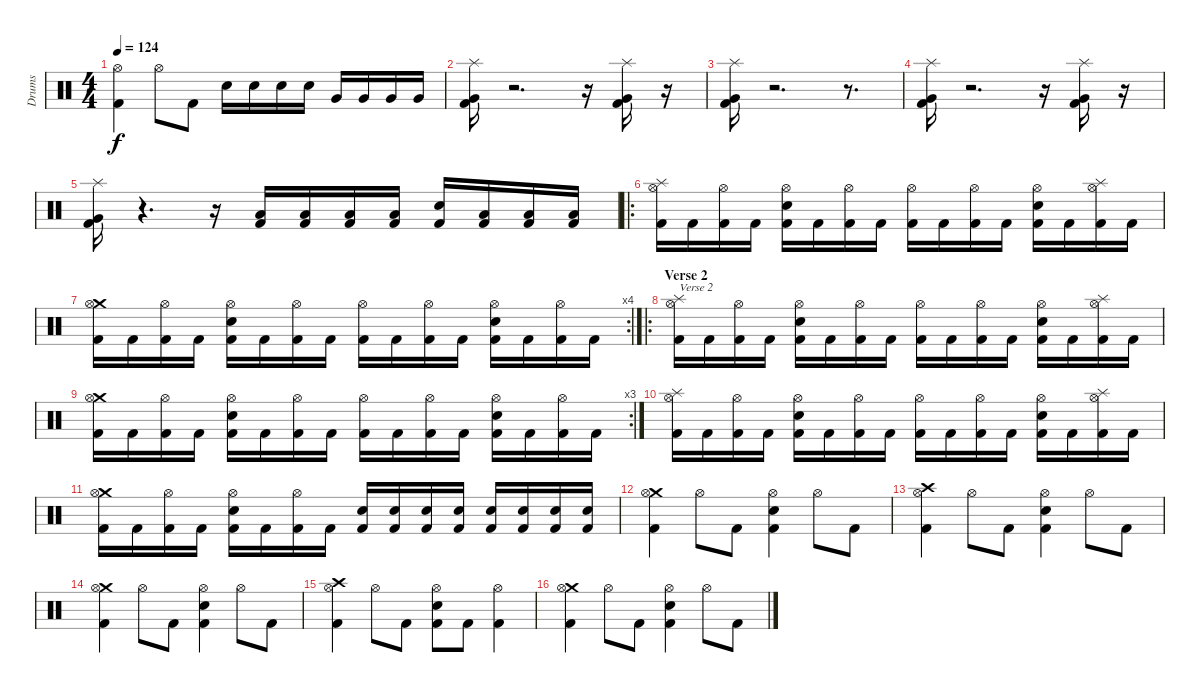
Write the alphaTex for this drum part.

\track ("Drums" "Drums") {instrument percussion}
\staff {score}
\articulation defaults
\ts (4 4)
\tempo 124
\clef neutral
\ks c
("Hi-Hat (open)" "Kick (hit) 2").4{dy f} "Hi-Hat (open)".8 "Kick (hit) 2".8 "Electric Snare (hit)".16 "Electric Snare (hit)".16 "Electric Snare (hit)".16 "Electric Snare (hit)".16 "Very Low Tom (hit)".16 "Very Low Tom (hit)".16 "Very Low Tom (hit)".16 "Very Low Tom (hit)".16 |
("Splash (hit)" "Very Low Tom (hit)" "Kick (hit) 2").16 r.2{d} r.16 ("Splash (hit)" "Very Low Tom (hit)" "Kick (hit) 2").16 r.16 |
("Splash (hit)" "Very Low Tom (hit)" "Kick (hit) 2").16 r.2{d} r.8{d} |
("Splash (hit)" "Very Low Tom (hit)" "Kick (hit) 2").16 r.2{d} r.16 ("Splash (hit)" "Very Low Tom (hit)" "Kick (hit) 2").16 r.16 |
("Splash (hit)" "Very Low Tom (hit)" "Kick (hit) 2").16 r.4{d} r.16 ("Low Floor Tom (hit)" "Kick (hit) 2").16 ("Low Floor Tom (hit)" "Kick (hit) 2").16 ("Low Floor Tom (hit)" "Kick (hit) 2").16 ("Low Floor Tom (hit)" "Kick (hit) 2").16 ("Electric Snare (hit)" "Kick (hit) 2").16 ("Low Floor Tom (hit)" "Kick (hit) 2").16 ("Low Floor Tom (hit)" "Kick (hit) 2").16 ("Low Floor Tom (hit)" "Kick (hit) 2").16 |
\ro
("Splash (hit)" "Hi-Hat (open)" "Kick (hit) 2").16 "Kick (hit) 2".16 ("Hi-Hat (open)" "Kick (hit) 2").16 "Kick (hit) 2".16 ("Hi-Hat (open)" "Electric Snare (hit)" "Kick (hit) 2").16 "Kick (hit) 2".16 ("Hi-Hat (open)" "Kick (hit) 2").16 "Kick (hit) 2".16 ("Hi-Hat (open)" "Kick (hit) 2").16 "Kick (hit) 2".16 ("Hi-Hat (open)" "Kick (hit) 2").16 "Kick (hit) 2".16 ("Hi-Hat (open)" "Electric Snare (hit)" "Kick (hit) 2").16 "Kick (hit) 2".16 ("Splash (hit)" "Hi-Hat (open)" "Kick (hit) 2").16 "Kick (hit) 2".16 |
\rc 4
("Crash medium (hit)" "Hi-Hat (open)" "Kick (hit) 2").16 "Kick (hit) 2".16 ("Hi-Hat (open)" "Kick (hit) 2").16 "Kick (hit) 2".16 ("Hi-Hat (open)" "Electric Snare (hit)" "Kick (hit) 2").16 "Kick (hit) 2".16 ("Hi-Hat (open)" "Kick (hit) 2").16 "Kick (hit) 2".16 ("Hi-Hat (open)" "Kick (hit) 2").16 "Kick (hit) 2".16 ("Hi-Hat (open)" "Kick (hit) 2").16 "Kick (hit) 2".16 ("Hi-Hat (open)" "Electric Snare (hit)" "Kick (hit) 2").16 "Kick (hit) 2".16 ("Hi-Hat (open)" "Kick (hit) 2").16 "Kick (hit) 2".16 |
\ro
\section ("" "Verse 2")
("Splash (hit)" "Hi-Hat (open)" "Kick (hit) 2").16{txt "Verse 2"} "Kick (hit) 2".16 ("Hi-Hat (open)" "Kick (hit) 2").16 "Kick (hit) 2".16 ("Hi-Hat (open)" "Electric Snare (hit)" "Kick (hit) 2").16 "Kick (hit) 2".16 ("Hi-Hat (open)" "Kick (hit) 2").16 "Kick (hit) 2".16 ("Hi-Hat (open)" "Kick (hit) 2").16 "Kick (hit) 2".16 ("Hi-Hat (open)" "Kick (hit) 2").16 "Kick (hit) 2".16 ("Hi-Hat (open)" "Electric Snare (hit)" "Kick (hit) 2").16 "Kick (hit) 2".16 ("Splash (hit)" "Hi-Hat (open)" "Kick (hit) 2").16 "Kick (hit) 2".16 |
\rc 3
("Crash medium (hit)" "Hi-Hat (open)" "Kick (hit) 2").16 "Kick (hit) 2".16 ("Hi-Hat (open)" "Kick (hit) 2").16 "Kick (hit) 2".16 ("Hi-Hat (open)" "Electric Snare (hit)" "Kick (hit) 2").16 "Kick (hit) 2".16 ("Hi-Hat (open)" "Kick (hit) 2").16 "Kick (hit) 2".16 ("Hi-Hat (open)" "Kick (hit) 2").16 "Kick (hit) 2".16 ("Hi-Hat (open)" "Kick (hit) 2").16 "Kick (hit) 2".16 ("Hi-Hat (open)" "Electric Snare (hit)" "Kick (hit) 2").16 "Kick (hit) 2".16 ("Hi-Hat (open)" "Kick (hit) 2").16 "Kick (hit) 2".16 |
("Splash (hit)" "Hi-Hat (open)" "Kick (hit) 2").16 "Kick (hit) 2".16 ("Hi-Hat (open)" "Kick (hit) 2").16 "Kick (hit) 2".16 ("Hi-Hat (open)" "Electric Snare (hit)" "Kick (hit) 2").16 "Kick (hit) 2".16 ("Hi-Hat (open)" "Kick (hit) 2").16 "Kick (hit) 2".16 ("Hi-Hat (open)" "Kick (hit) 2").16 "Kick (hit) 2".16 ("Hi-Hat (open)" "Kick (hit) 2").16 "Kick (hit) 2".16 ("Hi-Hat (open)" "Electric Snare (hit)" "Kick (hit) 2").16 "Kick (hit) 2".16 ("Splash (hit)" "Hi-Hat (open)" "Kick (hit) 2").16 "Kick (hit) 2".16 |
("Crash medium (hit)" "Hi-Hat (open)" "Kick (hit) 2").16 "Kick (hit) 2".16 ("Hi-Hat (open)" "Kick (hit) 2").16 "Kick (hit) 2".16 ("Hi-Hat (open)" "Electric Snare (hit)" "Kick (hit) 2").16 "Kick (hit) 2".16 ("Hi-Hat (open)" "Kick (hit) 2").16 "Kick (hit) 2".16 ("Electric Snare (hit)" "Kick (hit) 2").16 ("Electric Snare (hit)" "Kick (hit) 2").16 ("Electric Snare (hit)" "Kick (hit) 2").16 ("Electric Snare (hit)" "Kick (hit) 2").16 ("Electric Snare (hit)" "Kick (hit) 2").16 ("Electric Snare (hit)" "Kick (hit) 2").16 ("Electric Snare (hit)" "Kick (hit) 2").16 ("Electric Snare (hit)" "Kick (hit) 2").16 |
("Crash medium (hit)" "Hi-Hat (open)" "Kick (hit) 2").4 "Hi-Hat (open)".8 "Kick (hit) 2".8 ("Hi-Hat (open)" "Electric Snare (hit)" "Kick (hit) 2").4 "Hi-Hat (open)".8 "Kick (hit) 2".8 |
("Crash high (hit)" "Hi-Hat (open)" "Kick (hit) 2").4 "Hi-Hat (open)".8 "Kick (hit) 2".8 ("Hi-Hat (open)" "Electric Snare (hit)" "Kick (hit) 2").4 "Hi-Hat (open)".8 "Kick (hit) 2".8 |
("Crash medium (hit)" "Hi-Hat (open)" "Kick (hit) 2").4 "Hi-Hat (open)".8 "Kick (hit) 2".8 ("Hi-Hat (open)" "Electric Snare (hit)" "Kick (hit) 2").4 "Hi-Hat (open)".8 "Kick (hit) 2".8 |
("Crash high (hit)" "Hi-Hat (open)" "Kick (hit) 2").4 "Hi-Hat (open)".8 "Kick (hit) 2".8 ("Hi-Hat (open)" "Electric Snare (hit)" "Kick (hit) 2").8 "Kick (hit) 2".8 ("Hi-Hat (open)" "Kick (hit) 2").4 |
("Crash medium (hit)" "Hi-Hat (open)" "Kick (hit) 2").4 "Hi-Hat (open)".8 "Kick (hit) 2".8 ("Hi-Hat (open)" "Electric Snare (hit)" "Kick (hit) 2").4 "Hi-Hat (open)".8 "Kick (hit) 2".8
